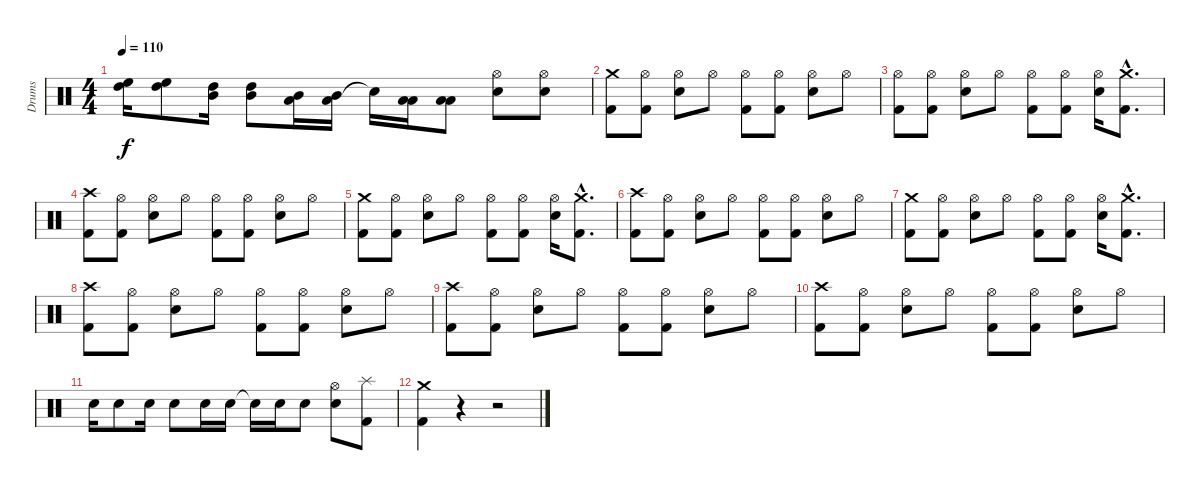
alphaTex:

\track ("Drums" "Drums") {instrument percussion}
\staff {score}
\articulation defaults
\ts (4 4)
\tempo 110
\clef neutral
\ks c
("High Tom (hit)" "High Floor Tom (hit)").16{dy f} ("High Tom (hit)" "High Floor Tom (hit)").8 ("Mid Tom (hit)" "High Tom (hit)").16 ("Mid Tom (hit)" "High Tom (hit)").8 ("Low Tom (hit)" "Mid Tom (hit)").16 ("Low Tom (hit)" "Mid Tom (hit)").16 "Snare (hit)"{t}.16 ("Low Floor Tom (hit)" "Low Tom (hit)").16 ("Low Floor Tom (hit)" "Low Tom (hit)").8 ("Hi-Hat (open)" "Snare (hit) 2").8 ("Hi-Hat (open)" "Snare (hit) 2").8 |
("Crash medium (hit)" "Kick (hit) 2").8 ("Hi-Hat (open)" "Kick (hit) 2").8 ("Hi-Hat (open)" "Snare (hit) 2").8 "Hi-Hat (open)".8 ("Hi-Hat (open)" "Kick (hit) 2").8 ("Hi-Hat (open)" "Kick (hit) 2").8 ("Hi-Hat (open)" "Snare (hit) 2").8 "Hi-Hat (open)".8 |
("Hi-Hat (open)" "Kick (hit) 2").8 ("Hi-Hat (open)" "Kick (hit) 2").8 ("Hi-Hat (open)" "Snare (hit) 2").8 "Hi-Hat (open)".8 ("Hi-Hat (open)" "Kick (hit) 2").8 ("Hi-Hat (open)" "Kick (hit) 2").8 ("Hi-Hat (open)" "Snare (hit) 2").16 ("Crash medium (hit)"{hac} "Kick (hit) 2"{hac}).8{d} |
("Crash high (hit)" "Kick (hit) 2").8 ("Hi-Hat (open)" "Kick (hit) 2").8 ("Hi-Hat (open)" "Snare (hit) 2").8 "Hi-Hat (open)".8 ("Hi-Hat (open)" "Kick (hit) 2").8 ("Hi-Hat (open)" "Kick (hit) 2").8 ("Hi-Hat (open)" "Snare (hit) 2").8 "Hi-Hat (open)".8 |
("Crash medium (hit)" "Kick (hit) 2").8 ("Hi-Hat (open)" "Kick (hit) 2").8 ("Hi-Hat (open)" "Snare (hit) 2").8 "Hi-Hat (open)".8 ("Hi-Hat (open)" "Kick (hit) 2").8 ("Hi-Hat (open)" "Kick (hit) 2").8 ("Hi-Hat (open)" "Snare (hit) 2").16 ("Crash medium (hit)"{hac} "Kick (hit) 2"{hac}).8{d} |
("Crash high (hit)" "Kick (hit) 2").8 ("Hi-Hat (open)" "Kick (hit) 2").8 ("Hi-Hat (open)" "Snare (hit) 2").8 "Hi-Hat (open)".8 ("Hi-Hat (open)" "Kick (hit) 2").8 ("Hi-Hat (open)" "Kick (hit) 2").8 ("Hi-Hat (open)" "Snare (hit) 2").8 "Hi-Hat (open)".8 |
("Crash medium (hit)" "Kick (hit) 2").8 ("Hi-Hat (open)" "Kick (hit) 2").8 ("Hi-Hat (open)" "Snare (hit) 2").8 "Hi-Hat (open)".8 ("Hi-Hat (open)" "Kick (hit) 2").8 ("Hi-Hat (open)" "Kick (hit) 2").8 ("Hi-Hat (open)" "Snare (hit) 2").16 ("Crash medium (hit)"{hac} "Kick (hit) 2"{hac}).8{d} |
("Crash high (hit)" "Kick (hit) 2").8 ("Hi-Hat (open)" "Kick (hit) 2").8 ("Hi-Hat (open)" "Snare (hit) 2").8 "Hi-Hat (open)".8 ("Hi-Hat (open)" "Kick (hit) 2").8 ("Hi-Hat (open)" "Kick (hit) 2").8 ("Hi-Hat (open)" "Snare (hit) 2").8 "Hi-Hat (open)".8 |
("Crash high (hit)" "Kick (hit) 2").8 ("Hi-Hat (open)" "Kick (hit) 2").8 ("Hi-Hat (open)" "Snare (hit) 2").8 "Hi-Hat (open)".8 ("Hi-Hat (open)" "Kick (hit) 2").8 ("Hi-Hat (open)" "Kick (hit) 2").8 ("Hi-Hat (open)" "Snare (hit) 2").8 "Hi-Hat (open)".8 |
("Crash high (hit)" "Kick (hit) 2").8 ("Hi-Hat (open)" "Kick (hit) 2").8 ("Hi-Hat (open)" "Snare (hit) 2").8 "Hi-Hat (open)".8 ("Hi-Hat (open)" "Kick (hit) 2").8 ("Hi-Hat (open)" "Kick (hit) 2").8 ("Hi-Hat (open)" "Snare (hit) 2").8 "Hi-Hat (open)".8 |
"Snare (hit) 2".16 "Snare (hit) 2".8 "Snare (hit) 2".16 "Snare (hit) 2".8 "Snare (hit) 2".16 "Snare (hit) 2".16 "Snare (hit)"{t}.16 "Snare (hit) 2".16 "Snare (hit) 2".8 ("Hi-Hat (open)" "Snare (hit) 2").8 ("Splash (hit)" "Kick (hit) 2").8 |
("Crash medium (hit)" "Kick (hit) 2").4 r.4 r.2
